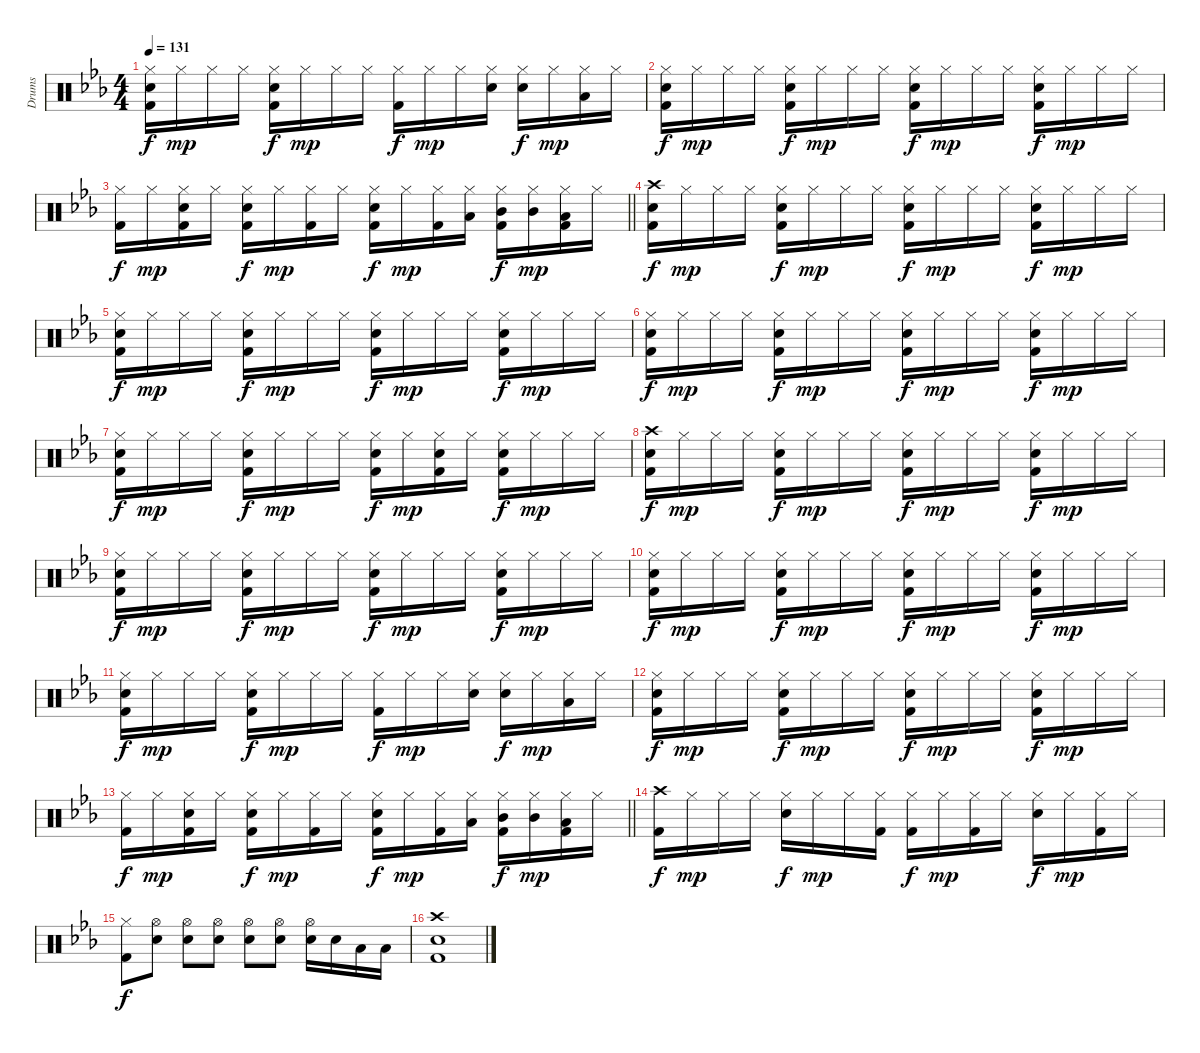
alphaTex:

\track ("Drums" "Drums") {instrument percussion}
\staff {score}
\articulation defaults
\ts (4 4)
\tempo 131
\clef neutral
\ks eb
("Hi-Hat (closed)" "Snare (hit) 2" "Kick (hit) 2").16{dy f} "Hi-Hat (closed)".16{dy mp} "Hi-Hat (closed)".16 "Hi-Hat (closed)".16 ("Hi-Hat (closed)" "Snare (hit) 2" "Kick (hit) 2").16{dy f} "Hi-Hat (closed)".16{dy mp} "Hi-Hat (closed)".16 "Hi-Hat (closed)".16 ("Hi-Hat (closed)" "Kick (hit) 2").16{dy f} "Hi-Hat (closed)".16{dy mp} "Hi-Hat (closed)".16 ("Hi-Hat (closed)" "Snare (hit) 2").16 ("Hi-Hat (closed)" "Snare (hit) 2").16{dy f} "Hi-Hat (closed)".16{dy mp} ("Hi-Hat (closed)" "Low Tom (hit)").16 "Hi-Hat (closed)".16 |
("Hi-Hat (closed)" "Snare (hit) 2" "Kick (hit) 2").16{dy f} "Hi-Hat (closed)".16{dy mp} "Hi-Hat (closed)".16 "Hi-Hat (closed)".16 ("Hi-Hat (closed)" "Snare (hit) 2" "Kick (hit) 2").16{dy f} "Hi-Hat (closed)".16{dy mp} "Hi-Hat (closed)".16 "Hi-Hat (closed)".16 ("Hi-Hat (closed)" "Snare (hit) 2" "Kick (hit) 2").16{dy f} "Hi-Hat (closed)".16{dy mp} "Hi-Hat (closed)".16 "Hi-Hat (closed)".16 ("Hi-Hat (closed)" "Snare (hit) 2" "Kick (hit) 2").16{dy f} "Hi-Hat (closed)".16{dy mp} "Hi-Hat (closed)".16 "Hi-Hat (closed)".16 |
\barLineRight lightlight
("Hi-Hat (closed)" "Kick (hit) 2").16{dy f} "Hi-Hat (closed)".16{dy mp} ("Hi-Hat (closed)" "Snare (hit) 2" "Kick (hit) 2").16 "Hi-Hat (closed)".16 ("Hi-Hat (closed)" "Snare (hit) 2" "Kick (hit) 2").16{dy f} "Hi-Hat (closed)".16{dy mp} ("Hi-Hat (closed)" "Kick (hit) 2").16 "Hi-Hat (closed)".16 ("Hi-Hat (closed)" "Snare (hit) 2" "Kick (hit) 2").16{dy f} "Hi-Hat (closed)".16{dy mp} ("Hi-Hat (closed)" "Kick (hit) 2").16 ("Hi-Hat (closed)" "Low Tom (hit)").16 ("Hi-Hat (closed)" "Mid Tom (hit)" "Kick (hit) 2").16{dy f} ("Hi-Hat (closed)" "Mid Tom (hit)").16{dy mp} ("Hi-Hat (closed)" "Low Tom (hit)" "Kick (hit) 2").16 "Hi-Hat (closed)".16 |
("Crash high (hit)" "Snare (hit) 2" "Kick (hit) 2").16{dy f} "Hi-Hat (closed)".16{dy mp} "Hi-Hat (closed)".16 "Hi-Hat (closed)".16 ("Hi-Hat (closed)" "Snare (hit) 2" "Kick (hit) 2").16{dy f} "Hi-Hat (closed)".16{dy mp} "Hi-Hat (closed)".16 "Hi-Hat (closed)".16 ("Hi-Hat (closed)" "Snare (hit) 2" "Kick (hit) 2").16{dy f} "Hi-Hat (closed)".16{dy mp} "Hi-Hat (closed)".16 "Hi-Hat (closed)".16 ("Hi-Hat (closed)" "Snare (hit) 2" "Kick (hit) 2").16{dy f} "Hi-Hat (closed)".16{dy mp} "Hi-Hat (closed)".16 "Hi-Hat (closed)".16 |
("Hi-Hat (closed)" "Snare (hit) 2" "Kick (hit) 2").16{dy f} "Hi-Hat (closed)".16{dy mp} "Hi-Hat (closed)".16 "Hi-Hat (closed)".16 ("Hi-Hat (closed)" "Snare (hit) 2" "Kick (hit) 2").16{dy f} "Hi-Hat (closed)".16{dy mp} "Hi-Hat (closed)".16 "Hi-Hat (closed)".16 ("Hi-Hat (closed)" "Snare (hit) 2" "Kick (hit) 2").16{dy f} "Hi-Hat (closed)".16{dy mp} "Hi-Hat (closed)".16 "Hi-Hat (closed)".16 ("Hi-Hat (closed)" "Snare (hit) 2" "Kick (hit) 2").16{dy f} "Hi-Hat (closed)".16{dy mp} "Hi-Hat (closed)".16 "Hi-Hat (closed)".16 |
("Hi-Hat (closed)" "Snare (hit) 2" "Kick (hit) 2").16{dy f} "Hi-Hat (closed)".16{dy mp} "Hi-Hat (closed)".16 "Hi-Hat (closed)".16 ("Hi-Hat (closed)" "Snare (hit) 2" "Kick (hit) 2").16{dy f} "Hi-Hat (closed)".16{dy mp} "Hi-Hat (closed)".16 "Hi-Hat (closed)".16 ("Hi-Hat (closed)" "Snare (hit) 2" "Kick (hit) 2").16{dy f} "Hi-Hat (closed)".16{dy mp} "Hi-Hat (closed)".16 "Hi-Hat (closed)".16 ("Hi-Hat (closed)" "Snare (hit) 2" "Kick (hit) 2").16{dy f} "Hi-Hat (closed)".16{dy mp} "Hi-Hat (closed)".16 "Hi-Hat (closed)".16 |
("Hi-Hat (closed)" "Snare (hit) 2" "Kick (hit) 2").16{dy f} "Hi-Hat (closed)".16{dy mp} "Hi-Hat (closed)".16 "Hi-Hat (closed)".16 ("Hi-Hat (closed)" "Snare (hit) 2" "Kick (hit) 2").16{dy f} "Hi-Hat (closed)".16{dy mp} "Hi-Hat (closed)".16 "Hi-Hat (closed)".16 ("Hi-Hat (closed)" "Snare (hit) 2" "Kick (hit) 2").16{dy f} "Hi-Hat (closed)".16{dy mp} ("Hi-Hat (closed)" "Snare (hit) 2" "Kick (hit) 2").16 "Hi-Hat (closed)".16 ("Hi-Hat (closed)" "Snare (hit) 2" "Kick (hit) 2").16{dy f} "Hi-Hat (closed)".16{dy mp} "Hi-Hat (closed)".16 "Hi-Hat (closed)".16 |
("Crash high (hit)" "Snare (hit) 2" "Kick (hit) 2").16{dy f} "Hi-Hat (closed)".16{dy mp} "Hi-Hat (closed)".16 "Hi-Hat (closed)".16 ("Hi-Hat (closed)" "Snare (hit) 2" "Kick (hit) 2").16{dy f} "Hi-Hat (closed)".16{dy mp} "Hi-Hat (closed)".16 "Hi-Hat (closed)".16 ("Hi-Hat (closed)" "Snare (hit) 2" "Kick (hit) 2").16{dy f} "Hi-Hat (closed)".16{dy mp} "Hi-Hat (closed)".16 "Hi-Hat (closed)".16 ("Hi-Hat (closed)" "Snare (hit) 2" "Kick (hit) 2").16{dy f} "Hi-Hat (closed)".16{dy mp} "Hi-Hat (closed)".16 "Hi-Hat (closed)".16 |
("Hi-Hat (closed)" "Snare (hit) 2" "Kick (hit) 2").16{dy f} "Hi-Hat (closed)".16{dy mp} "Hi-Hat (closed)".16 "Hi-Hat (closed)".16 ("Hi-Hat (closed)" "Snare (hit) 2" "Kick (hit) 2").16{dy f} "Hi-Hat (closed)".16{dy mp} "Hi-Hat (closed)".16 "Hi-Hat (closed)".16 ("Hi-Hat (closed)" "Snare (hit) 2" "Kick (hit) 2").16{dy f} "Hi-Hat (closed)".16{dy mp} "Hi-Hat (closed)".16 "Hi-Hat (closed)".16 ("Hi-Hat (closed)" "Snare (hit) 2" "Kick (hit) 2").16{dy f} "Hi-Hat (closed)".16{dy mp} "Hi-Hat (closed)".16 "Hi-Hat (closed)".16 |
("Hi-Hat (closed)" "Snare (hit) 2" "Kick (hit) 2").16{dy f} "Hi-Hat (closed)".16{dy mp} "Hi-Hat (closed)".16 "Hi-Hat (closed)".16 ("Hi-Hat (closed)" "Snare (hit) 2" "Kick (hit) 2").16{dy f} "Hi-Hat (closed)".16{dy mp} "Hi-Hat (closed)".16 "Hi-Hat (closed)".16 ("Hi-Hat (closed)" "Snare (hit) 2" "Kick (hit) 2").16{dy f} "Hi-Hat (closed)".16{dy mp} "Hi-Hat (closed)".16 "Hi-Hat (closed)".16 ("Hi-Hat (closed)" "Snare (hit) 2" "Kick (hit) 2").16{dy f} "Hi-Hat (closed)".16{dy mp} "Hi-Hat (closed)".16 "Hi-Hat (closed)".16 |
("Hi-Hat (closed)" "Snare (hit) 2" "Kick (hit) 2").16{dy f} "Hi-Hat (closed)".16{dy mp} "Hi-Hat (closed)".16 "Hi-Hat (closed)".16 ("Hi-Hat (closed)" "Snare (hit) 2" "Kick (hit) 2").16{dy f} "Hi-Hat (closed)".16{dy mp} "Hi-Hat (closed)".16 "Hi-Hat (closed)".16 ("Hi-Hat (closed)" "Kick (hit) 2").16{dy f} "Hi-Hat (closed)".16{dy mp} "Hi-Hat (closed)".16 ("Hi-Hat (closed)" "Snare (hit) 2").16 ("Hi-Hat (closed)" "Snare (hit) 2").16{dy f} "Hi-Hat (closed)".16{dy mp} ("Hi-Hat (closed)" "Low Tom (hit)").16 "Hi-Hat (closed)".16 |
("Hi-Hat (closed)" "Snare (hit) 2" "Kick (hit) 2").16{dy f} "Hi-Hat (closed)".16{dy mp} "Hi-Hat (closed)".16 "Hi-Hat (closed)".16 ("Hi-Hat (closed)" "Snare (hit) 2" "Kick (hit) 2").16{dy f} "Hi-Hat (closed)".16{dy mp} "Hi-Hat (closed)".16 "Hi-Hat (closed)".16 ("Hi-Hat (closed)" "Snare (hit) 2" "Kick (hit) 2").16{dy f} "Hi-Hat (closed)".16{dy mp} "Hi-Hat (closed)".16 "Hi-Hat (closed)".16 ("Hi-Hat (closed)" "Snare (hit) 2" "Kick (hit) 2").16{dy f} "Hi-Hat (closed)".16{dy mp} "Hi-Hat (closed)".16 "Hi-Hat (closed)".16 |
\barLineRight lightlight
("Hi-Hat (closed)" "Kick (hit) 2").16{dy f} "Hi-Hat (closed)".16{dy mp} ("Hi-Hat (closed)" "Snare (hit) 2" "Kick (hit) 2").16 "Hi-Hat (closed)".16 ("Hi-Hat (closed)" "Snare (hit) 2" "Kick (hit) 2").16{dy f} "Hi-Hat (closed)".16{dy mp} ("Hi-Hat (closed)" "Kick (hit) 2").16 "Hi-Hat (closed)".16 ("Hi-Hat (closed)" "Snare (hit) 2" "Kick (hit) 2").16{dy f} "Hi-Hat (closed)".16{dy mp} ("Hi-Hat (closed)" "Kick (hit) 2").16 ("Hi-Hat (closed)" "Low Tom (hit)").16 ("Hi-Hat (closed)" "Mid Tom (hit)" "Kick (hit) 2").16{dy f} ("Hi-Hat (closed)" "Mid Tom (hit)").16{dy mp} ("Hi-Hat (closed)" "Low Tom (hit)" "Kick (hit) 2").16 "Hi-Hat (closed)".16 |
("Crash high (hit)" "Kick (hit) 2").16{dy f} "Hi-Hat (closed)".16{dy mp} "Hi-Hat (closed)".16 "Hi-Hat (closed)".16 ("Hi-Hat (closed)" "Snare (hit) 2").16{dy f} "Hi-Hat (closed)".16{dy mp} "Hi-Hat (closed)".16 ("Hi-Hat (closed)" "Kick (hit) 2").16 ("Hi-Hat (closed)" "Kick (hit) 2").16{dy f} "Hi-Hat (closed)".16{dy mp} ("Hi-Hat (closed)" "Kick (hit) 2").16 "Hi-Hat (closed)".16 ("Hi-Hat (closed)" "Snare (hit) 2").16{dy f} "Hi-Hat (closed)".16{dy mp} ("Hi-Hat (closed)" "Kick (hit) 2").16 "Hi-Hat (closed)".16 |
("Hi-Hat (closed)" "Kick (hit) 2").8{dy f} ("Hi-Hat (open)" "Snare (hit) 2").8 ("Hi-Hat (open)" "Snare (hit) 2").8 ("Hi-Hat (open)" "Snare (hit) 2").8 ("Hi-Hat (open)" "Snare (hit) 2").8 ("Hi-Hat (open)" "Snare (hit) 2").8 ("Hi-Hat (open)" "Snare (hit) 2").16 "Snare (hit) 2".16 "Low Tom (hit)".16 "Low Tom (hit)".16 |
("Crash high (hit)" "Snare (hit) 2" "Kick (hit) 2").1
